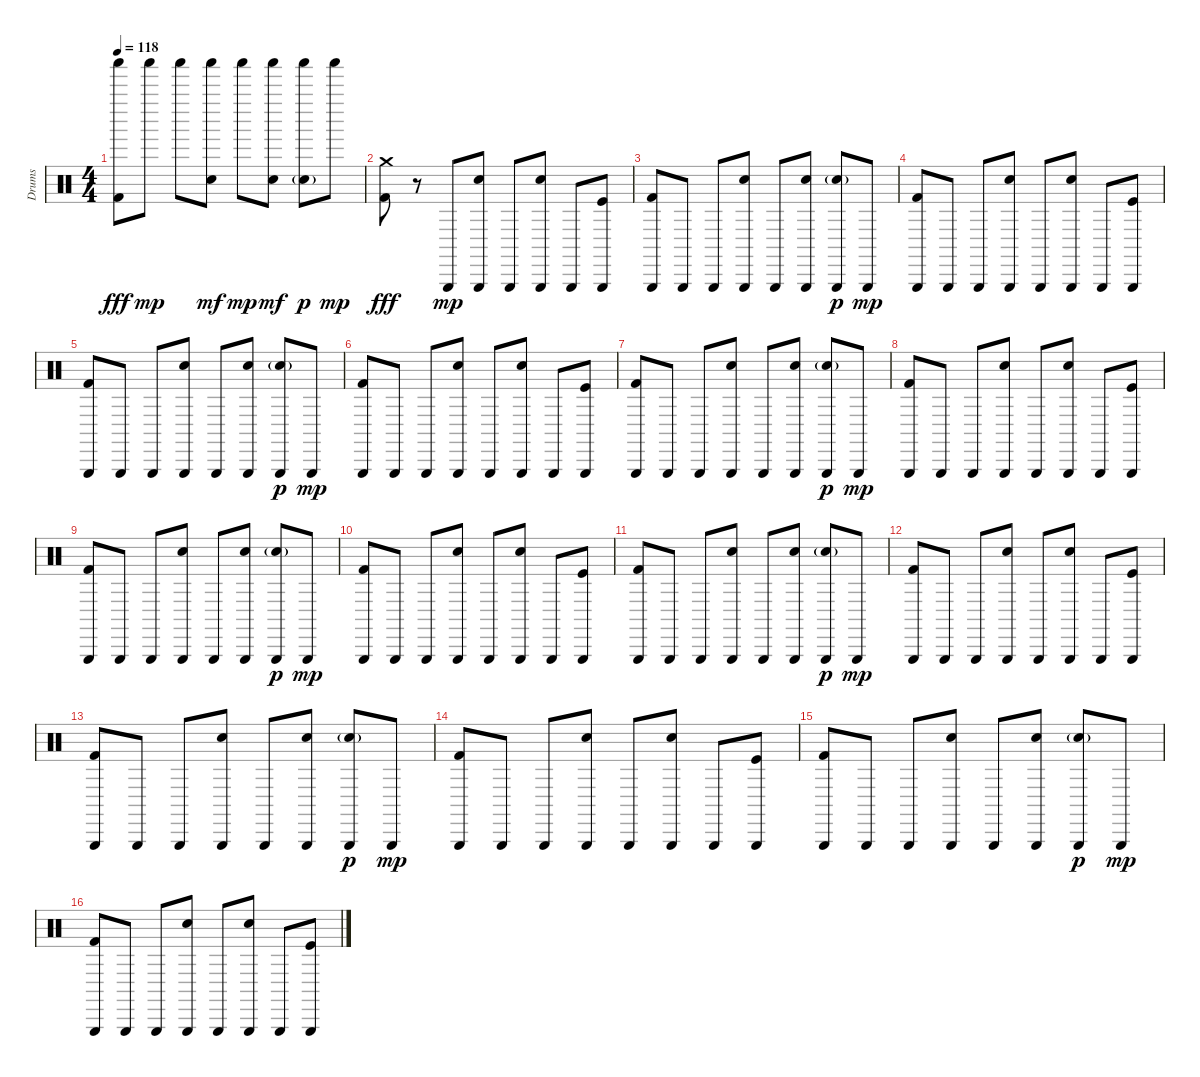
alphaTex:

\track ("Drums" "Drums") {instrument percussion}
\staff {score}
\articulation defaults
\ts (4 4)
\tempo 118
\clef neutral
\ks c
("Shaker (hit)" "Kick (hit) 2").8{dy fff} "Shaker (hit)".8{dy mp} "Shaker (hit)".8 ("Shaker (hit)" "Electric Snare (hit)").8{dy mf} "Shaker (hit)".8{dy mp} ("Shaker (hit)" "Snare (hit) 2").8{dy mf} ("Shaker (hit)" "Electric Snare (hit)"{g}).8{dy p} "Shaker (hit)".8{dy mp} |
("Crash medium (hit)" "Kick (hit) 2").8{dy fff} r.8 "Triangle (hit)".8{dy mp} ("Triangle (hit)" "Electric Snare (hit)").8 "Triangle (hit)".8 ("Triangle (hit)" "Electric Snare (hit)").8 "Triangle (hit)".8 ("Triangle (hit)" "Kick (hit)").8 |
("Triangle (hit)" "Kick (hit) 2").8 "Triangle (hit)".8 "Triangle (hit)".8 ("Triangle (hit)" "Electric Snare (hit)").8 "Triangle (hit)".8 ("Triangle (hit)" "Electric Snare (hit)").8 ("Triangle (hit)" "Electric Snare (hit)"{g}).8{dy p} "Triangle (hit)".8{dy mp} |
("Triangle (hit)" "Kick (hit) 2").8 "Triangle (hit)".8 "Triangle (hit)".8 ("Triangle (hit)" "Electric Snare (hit)").8 "Triangle (hit)".8 ("Triangle (hit)" "Electric Snare (hit)").8 "Triangle (hit)".8 ("Triangle (hit)" "Kick (hit)").8 |
("Triangle (hit)" "Kick (hit) 2").8 "Triangle (hit)".8 "Triangle (hit)".8 ("Triangle (hit)" "Electric Snare (hit)").8 "Triangle (hit)".8 ("Triangle (hit)" "Electric Snare (hit)").8 ("Triangle (hit)" "Electric Snare (hit)"{g}).8{dy p} "Triangle (hit)".8{dy mp} |
("Triangle (hit)" "Kick (hit) 2").8 "Triangle (hit)".8 "Triangle (hit)".8 ("Triangle (hit)" "Electric Snare (hit)").8 "Triangle (hit)".8 ("Triangle (hit)" "Electric Snare (hit)").8 "Triangle (hit)".8 ("Triangle (hit)" "Kick (hit)").8 |
("Triangle (hit)" "Kick (hit) 2").8 "Triangle (hit)".8 "Triangle (hit)".8 ("Triangle (hit)" "Electric Snare (hit)").8 "Triangle (hit)".8 ("Triangle (hit)" "Electric Snare (hit)").8 ("Triangle (hit)" "Electric Snare (hit)"{g}).8{dy p} "Triangle (hit)".8{dy mp} |
("Triangle (hit)" "Kick (hit) 2").8 "Triangle (hit)".8 "Triangle (hit)".8 ("Triangle (hit)" "Electric Snare (hit)").8 "Triangle (hit)".8 ("Triangle (hit)" "Electric Snare (hit)").8 "Triangle (hit)".8 ("Triangle (hit)" "Kick (hit)").8 |
("Triangle (hit)" "Kick (hit) 2").8 "Triangle (hit)".8 "Triangle (hit)".8 ("Triangle (hit)" "Electric Snare (hit)").8 "Triangle (hit)".8 ("Triangle (hit)" "Electric Snare (hit)").8 ("Triangle (hit)" "Electric Snare (hit)"{g}).8{dy p} "Triangle (hit)".8{dy mp} |
("Triangle (hit)" "Kick (hit) 2").8 "Triangle (hit)".8 "Triangle (hit)".8 ("Triangle (hit)" "Electric Snare (hit)").8 "Triangle (hit)".8 ("Triangle (hit)" "Electric Snare (hit)").8 "Triangle (hit)".8 ("Triangle (hit)" "Kick (hit)").8 |
("Triangle (hit)" "Kick (hit) 2").8 "Triangle (hit)".8 "Triangle (hit)".8 ("Triangle (hit)" "Electric Snare (hit)").8 "Triangle (hit)".8 ("Triangle (hit)" "Electric Snare (hit)").8 ("Triangle (hit)" "Electric Snare (hit)"{g}).8{dy p} "Triangle (hit)".8{dy mp} |
("Triangle (hit)" "Kick (hit) 2").8 "Triangle (hit)".8 "Triangle (hit)".8 ("Triangle (hit)" "Electric Snare (hit)").8 "Triangle (hit)".8 ("Triangle (hit)" "Electric Snare (hit)").8 "Triangle (hit)".8 ("Triangle (hit)" "Kick (hit)").8 |
("Triangle (hit)" "Kick (hit) 2").8 "Triangle (hit)".8 "Triangle (hit)".8 ("Triangle (hit)" "Electric Snare (hit)").8 "Triangle (hit)".8 ("Triangle (hit)" "Electric Snare (hit)").8 ("Triangle (hit)" "Electric Snare (hit)"{g}).8{dy p} "Triangle (hit)".8{dy mp} |
("Triangle (hit)" "Kick (hit) 2").8 "Triangle (hit)".8 "Triangle (hit)".8 ("Triangle (hit)" "Electric Snare (hit)").8 "Triangle (hit)".8 ("Triangle (hit)" "Electric Snare (hit)").8 "Triangle (hit)".8 ("Triangle (hit)" "Kick (hit)").8 |
("Triangle (hit)" "Kick (hit) 2").8 "Triangle (hit)".8 "Triangle (hit)".8 ("Triangle (hit)" "Electric Snare (hit)").8 "Triangle (hit)".8 ("Triangle (hit)" "Electric Snare (hit)").8 ("Triangle (hit)" "Electric Snare (hit)"{g}).8{dy p} "Triangle (hit)".8{dy mp} |
("Triangle (hit)" "Kick (hit) 2").8 "Triangle (hit)".8 "Triangle (hit)".8 ("Triangle (hit)" "Electric Snare (hit)").8 "Triangle (hit)".8 ("Triangle (hit)" "Electric Snare (hit)").8 "Triangle (hit)".8 ("Triangle (hit)" "Kick (hit)").8
